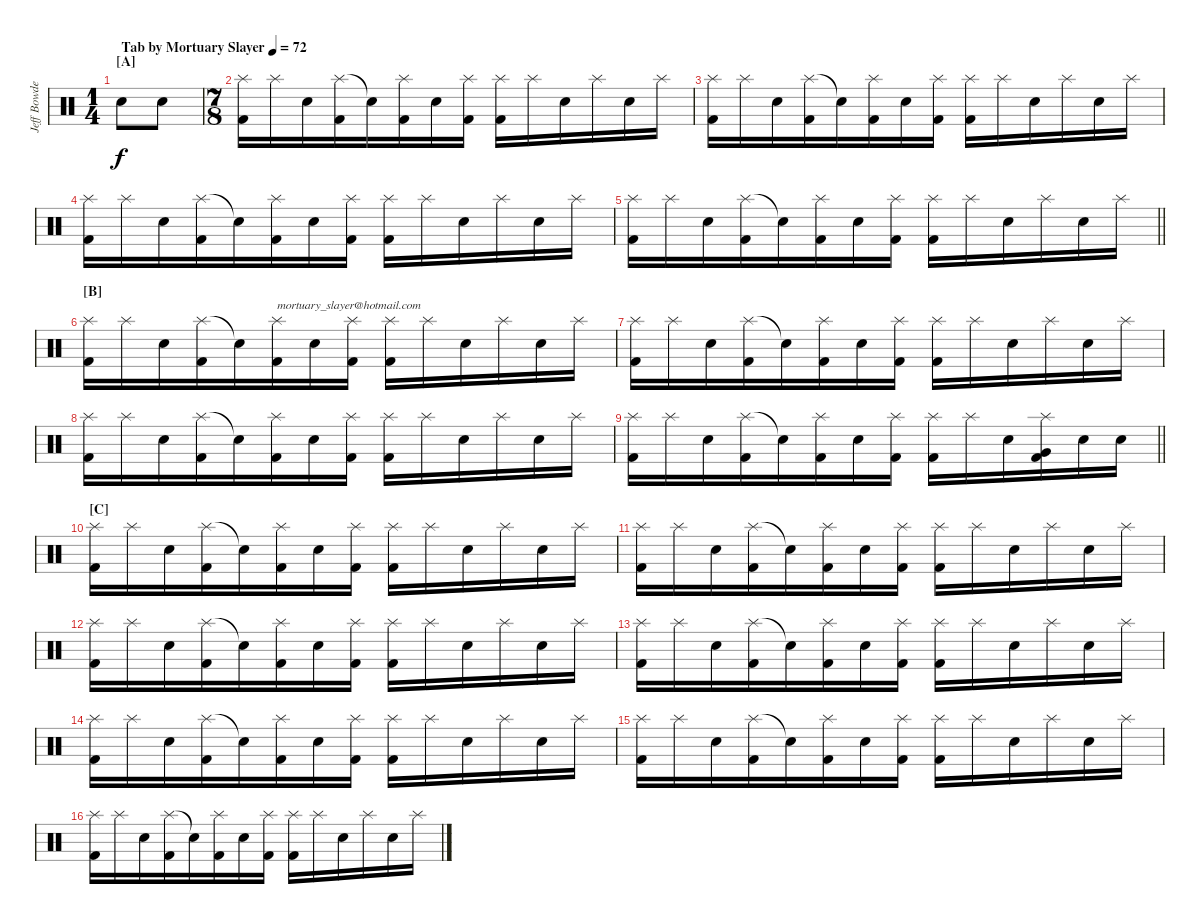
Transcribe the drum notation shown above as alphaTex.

\track ("Jeff Bowders" "Jeff Bowde") {instrument percussion}
\staff {score}
\articulation defaults
\ts (1 4)
\section ("" "[A]")
\tempo (72 "Tab by Mortuary Slayer")
\clef neutral
\ks aminor "Electric Snare (hit)".8{dy f} "Electric Snare (hit)".8
|
\ts (7 8)
("Splash (hit)" "Kick (hit) 2").16 "Splash (hit)".16 "Electric Snare (hit)".16 ("Splash (hit)" "Kick (hit) 2").16 "Snare (hit)"{t}.16 ("Splash (hit)" "Kick (hit) 2").16 "Electric Snare (hit)".16 ("Splash (hit)" "Kick (hit) 2").16 ("Splash (hit)" "Kick (hit) 2").16 "Splash (hit)".16 "Electric Snare (hit)".16 "Splash (hit)".16 "Electric Snare (hit)".16 "Splash (hit)".16 |
("Splash (hit)" "Kick (hit) 2").16 "Splash (hit)".16 "Electric Snare (hit)".16 ("Splash (hit)" "Kick (hit) 2").16 "Snare (hit)"{t}.16 ("Splash (hit)" "Kick (hit) 2").16 "Electric Snare (hit)".16 ("Splash (hit)" "Kick (hit) 2").16 ("Splash (hit)" "Kick (hit) 2").16 "Splash (hit)".16 "Electric Snare (hit)".16 "Splash (hit)".16 "Electric Snare (hit)".16 "Splash (hit)".16 |
("Splash (hit)" "Kick (hit) 2").16 "Splash (hit)".16 "Electric Snare (hit)".16 ("Splash (hit)" "Kick (hit) 2").16 "Snare (hit)"{t}.16 ("Splash (hit)" "Kick (hit) 2").16 "Electric Snare (hit)".16 ("Splash (hit)" "Kick (hit) 2").16 ("Splash (hit)" "Kick (hit) 2").16 "Splash (hit)".16 "Electric Snare (hit)".16 "Splash (hit)".16 "Electric Snare (hit)".16 "Splash (hit)".16 |
\barLineRight lightlight
("Splash (hit)" "Kick (hit) 2").16 "Splash (hit)".16 "Electric Snare (hit)".16 ("Splash (hit)" "Kick (hit) 2").16 "Snare (hit)"{t}.16 ("Splash (hit)" "Kick (hit) 2").16 "Electric Snare (hit)".16 ("Splash (hit)" "Kick (hit) 2").16 ("Splash (hit)" "Kick (hit) 2").16 "Splash (hit)".16 "Electric Snare (hit)".16 "Splash (hit)".16 "Electric Snare (hit)".16 "Splash (hit)".16 |
\section ("" "[B]")
("Splash (hit)" "Kick (hit) 2").16 "Splash (hit)".16 "Electric Snare (hit)".16 ("Splash (hit)" "Kick (hit) 2").16 "Snare (hit)"{t}.16 ("Splash (hit)" "Kick (hit) 2").16{txt "mortuary_slayer@hotmail.com"} "Electric Snare (hit)".16 ("Splash (hit)" "Kick (hit) 2").16 ("Splash (hit)" "Kick (hit) 2").16 "Splash (hit)".16 "Electric Snare (hit)".16 "Splash (hit)".16 "Electric Snare (hit)".16 "Splash (hit)".16 |
("Splash (hit)" "Kick (hit) 2").16 "Splash (hit)".16 "Electric Snare (hit)".16 ("Splash (hit)" "Kick (hit) 2").16 "Snare (hit)"{t}.16 ("Splash (hit)" "Kick (hit) 2").16 "Electric Snare (hit)".16 ("Splash (hit)" "Kick (hit) 2").16 ("Splash (hit)" "Kick (hit) 2").16 "Splash (hit)".16 "Electric Snare (hit)".16 "Splash (hit)".16 "Electric Snare (hit)".16 "Splash (hit)".16 |
("Splash (hit)" "Kick (hit) 2").16 "Splash (hit)".16 "Electric Snare (hit)".16 ("Splash (hit)" "Kick (hit) 2").16 "Snare (hit)"{t}.16 ("Splash (hit)" "Kick (hit) 2").16 "Electric Snare (hit)".16 ("Splash (hit)" "Kick (hit) 2").16 ("Splash (hit)" "Kick (hit) 2").16 "Splash (hit)".16 "Electric Snare (hit)".16 "Splash (hit)".16 "Electric Snare (hit)".16 "Splash (hit)".16 |
\barLineRight lightlight
("Splash (hit)" "Kick (hit) 2").16 "Splash (hit)".16 "Electric Snare (hit)".16 ("Splash (hit)" "Kick (hit) 2").16 "Snare (hit)"{t}.16 ("Splash (hit)" "Kick (hit) 2").16 "Electric Snare (hit)".16 ("Splash (hit)" "Kick (hit) 2").16 ("Splash (hit)" "Kick (hit) 2").16 "Splash (hit)".16 "Electric Snare (hit)".16 ("Splash (hit)" "Very Low Tom (hit)" "Kick (hit) 2").16 "Electric Snare (hit)".16 "Electric Snare (hit)".16 |
\section ("" "[C]")
("Splash (hit)" "Kick (hit) 2").16 "Splash (hit)".16 "Electric Snare (hit)".16 ("Splash (hit)" "Kick (hit) 2").16 "Snare (hit)"{t}.16 ("Splash (hit)" "Kick (hit) 2").16 "Electric Snare (hit)".16 ("Splash (hit)" "Kick (hit) 2").16 ("Splash (hit)" "Kick (hit) 2").16 "Splash (hit)".16 "Electric Snare (hit)".16 "Splash (hit)".16 "Electric Snare (hit)".16 "Splash (hit)".16 |
("Splash (hit)" "Kick (hit) 2").16 "Splash (hit)".16 "Electric Snare (hit)".16 ("Splash (hit)" "Kick (hit) 2").16 "Snare (hit)"{t}.16 ("Splash (hit)" "Kick (hit) 2").16 "Electric Snare (hit)".16 ("Splash (hit)" "Kick (hit) 2").16 ("Splash (hit)" "Kick (hit) 2").16 "Splash (hit)".16 "Electric Snare (hit)".16 "Splash (hit)".16 "Electric Snare (hit)".16 "Splash (hit)".16 |
("Splash (hit)" "Kick (hit) 2").16 "Splash (hit)".16 "Electric Snare (hit)".16 ("Splash (hit)" "Kick (hit) 2").16 "Snare (hit)"{t}.16 ("Splash (hit)" "Kick (hit) 2").16 "Electric Snare (hit)".16 ("Splash (hit)" "Kick (hit) 2").16 ("Splash (hit)" "Kick (hit) 2").16 "Splash (hit)".16 "Electric Snare (hit)".16 "Splash (hit)".16 "Electric Snare (hit)".16 "Splash (hit)".16 |
("Splash (hit)" "Kick (hit) 2").16 "Splash (hit)".16 "Electric Snare (hit)".16 ("Splash (hit)" "Kick (hit) 2").16 "Snare (hit)"{t}.16 ("Splash (hit)" "Kick (hit) 2").16 "Electric Snare (hit)".16 ("Splash (hit)" "Kick (hit) 2").16 ("Splash (hit)" "Kick (hit) 2").16 "Splash (hit)".16 "Electric Snare (hit)".16 "Splash (hit)".16 "Electric Snare (hit)".16 "Splash (hit)".16 |
("Splash (hit)" "Kick (hit) 2").16 "Splash (hit)".16 "Electric Snare (hit)".16 ("Splash (hit)" "Kick (hit) 2").16 "Snare (hit)"{t}.16 ("Splash (hit)" "Kick (hit) 2").16 "Electric Snare (hit)".16 ("Splash (hit)" "Kick (hit) 2").16 ("Splash (hit)" "Kick (hit) 2").16 "Splash (hit)".16 "Electric Snare (hit)".16 "Splash (hit)".16 "Electric Snare (hit)".16 "Splash (hit)".16 |
("Splash (hit)" "Kick (hit) 2").16 "Splash (hit)".16 "Electric Snare (hit)".16 ("Splash (hit)" "Kick (hit) 2").16 "Snare (hit)"{t}.16 ("Splash (hit)" "Kick (hit) 2").16 "Electric Snare (hit)".16 ("Splash (hit)" "Kick (hit) 2").16 ("Splash (hit)" "Kick (hit) 2").16 "Splash (hit)".16 "Electric Snare (hit)".16 "Splash (hit)".16 "Electric Snare (hit)".16 "Splash (hit)".16 |
("Splash (hit)" "Kick (hit) 2").16 "Splash (hit)".16 "Electric Snare (hit)".16 ("Splash (hit)" "Kick (hit) 2").16 "Snare (hit)"{t}.16 ("Splash (hit)" "Kick (hit) 2").16 "Electric Snare (hit)".16 ("Splash (hit)" "Kick (hit) 2").16 ("Splash (hit)" "Kick (hit) 2").16 "Splash (hit)".16 "Electric Snare (hit)".16 "Splash (hit)".16 "Electric Snare (hit)".16 "Splash (hit)".16
